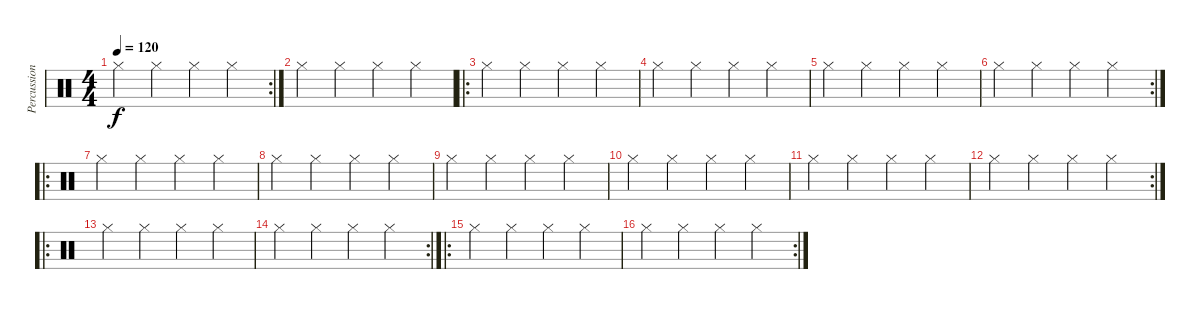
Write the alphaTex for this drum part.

\track ("Percussioni" "Percussion") {instrument percussion}
\staff {score}
\articulation defaults
\rc 2
\ts (4 4)
\tempo 120
\clef neutral
\ks c "Hi-Hat (closed)".4{dy f} "Hi-Hat (closed)".4 "Hi-Hat (closed)".4 "Hi-Hat (closed)".4
|
"Hi-Hat (closed)".4 "Hi-Hat (closed)".4 "Hi-Hat (closed)".4 "Hi-Hat (closed)".4 |
\ro "Hi-Hat (closed)".4 "Hi-Hat (closed)".4 "Hi-Hat (closed)".4 "Hi-Hat (closed)".4
|
"Hi-Hat (closed)".4 "Hi-Hat (closed)".4 "Hi-Hat (closed)".4 "Hi-Hat (closed)".4 |
"Hi-Hat (closed)".4 "Hi-Hat (closed)".4 "Hi-Hat (closed)".4 "Hi-Hat (closed)".4 |
\rc 2 "Hi-Hat (closed)".4 "Hi-Hat (closed)".4 "Hi-Hat (closed)".4 "Hi-Hat (closed)".4
|
\ro "Hi-Hat (closed)".4 "Hi-Hat (closed)".4 "Hi-Hat (closed)".4 "Hi-Hat (closed)".4
|
"Hi-Hat (closed)".4 "Hi-Hat (closed)".4 "Hi-Hat (closed)".4 "Hi-Hat (closed)".4 |
"Hi-Hat (closed)".4 "Hi-Hat (closed)".4 "Hi-Hat (closed)".4 "Hi-Hat (closed)".4 |
"Hi-Hat (closed)".4 "Hi-Hat (closed)".4 "Hi-Hat (closed)".4 "Hi-Hat (closed)".4 |
"Hi-Hat (closed)".4 "Hi-Hat (closed)".4 "Hi-Hat (closed)".4 "Hi-Hat (closed)".4 |
\rc 2 "Hi-Hat (closed)".4 "Hi-Hat (closed)".4 "Hi-Hat (closed)".4 "Hi-Hat (closed)".4
|
\ro "Hi-Hat (closed)".4 "Hi-Hat (closed)".4 "Hi-Hat (closed)".4 "Hi-Hat (closed)".4
|
\rc 2 "Hi-Hat (closed)".4 "Hi-Hat (closed)".4 "Hi-Hat (closed)".4 "Hi-Hat (closed)".4
|
\ro "Hi-Hat (closed)".4 "Hi-Hat (closed)".4 "Hi-Hat (closed)".4 "Hi-Hat (closed)".4
|
\rc 2 "Hi-Hat (closed)".4 "Hi-Hat (closed)".4 "Hi-Hat (closed)".4 "Hi-Hat (closed)".4
